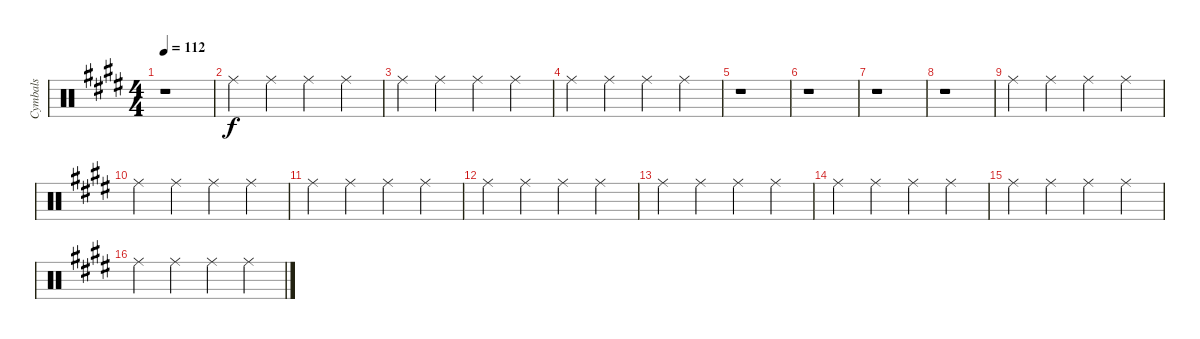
\track ("Cymbals" "Cymbals") {instrument percussion}
\staff {score}
\articulation defaults
\ts (4 4)
\tempo 112
\clef neutral
\ks e
r.1{dy f} |
"Ride (middle)".4 "Ride (middle)".4 "Ride (middle)".4 "Ride (middle)".4 |
"Ride (middle)".4 "Ride (middle)".4 "Ride (middle)".4 "Ride (middle)".4 |
"Ride (middle)".4 "Ride (middle)".4 "Ride (middle)".4 "Ride (middle)".4 |
r.1 |
r.1 |
r.1 |
r.1 |
"Ride (middle)".4 "Ride (middle)".4 "Ride (middle)".4 "Ride (middle)".4 |
"Ride (middle)".4 "Ride (middle)".4 "Ride (middle)".4 "Ride (middle)".4 |
"Ride (middle)".4 "Ride (middle)".4 "Ride (middle)".4 "Ride (middle)".4 |
"Ride (middle)".4 "Ride (middle)".4 "Ride (middle)".4 "Ride (middle)".4 |
"Ride (middle)".4 "Ride (middle)".4 "Ride (middle)".4 "Ride (middle)".4 |
"Ride (middle)".4 "Ride (middle)".4 "Ride (middle)".4 "Ride (middle)".4 |
"Ride (middle)".4 "Ride (middle)".4 "Ride (middle)".4 "Ride (middle)".4 |
"Ride (middle)".4 "Ride (middle)".4 "Ride (middle)".4 "Ride (middle)".4
